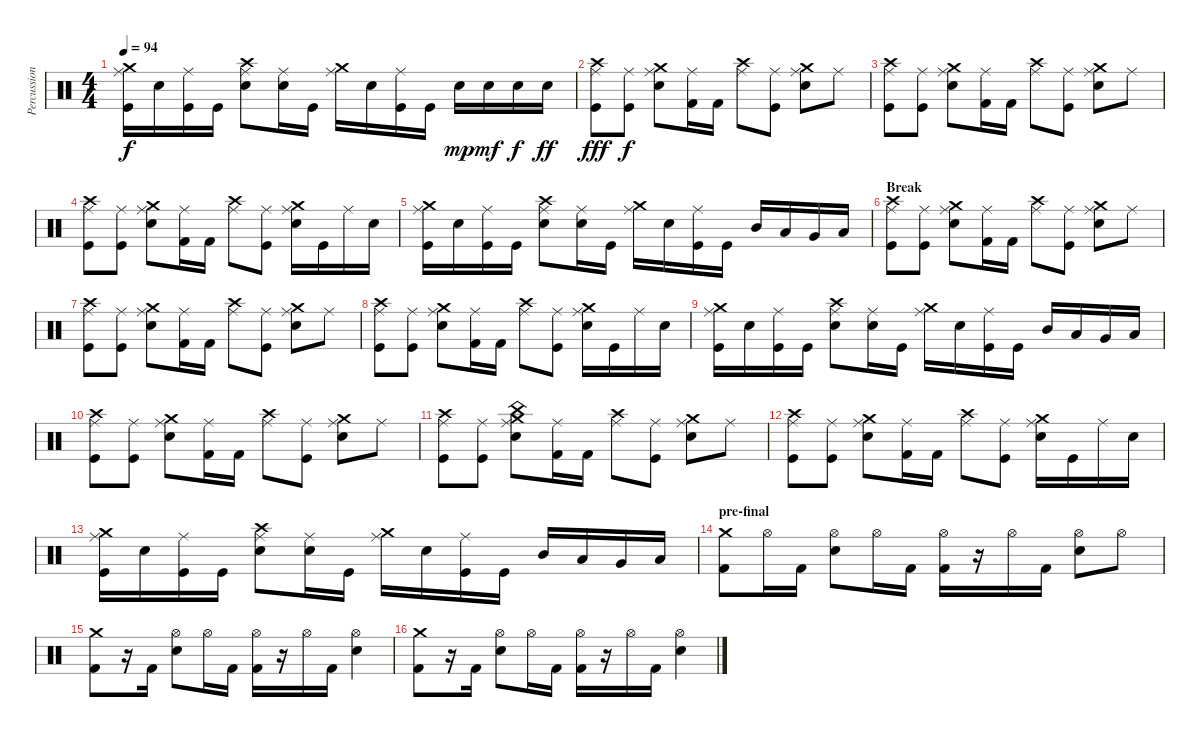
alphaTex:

\track ("Percussions" "Percussion") {instrument percussion}
\staff {score}
\articulation defaults
\ts (4 4)
\tempo 94
\clef neutral
\ks c
("Crash medium (hit)" "Ride (middle)" "Kick (hit)").16{dy f} "Electric Snare (hit)".16 ("Ride (middle)" "Kick (hit)").16 "Kick (hit)".16 ("Crash high (hit)" "Ride (middle)" "Electric Snare (hit)").8 ("Ride (middle)" "Electric Snare (hit)").16 "Kick (hit)".16 ("Crash medium (hit)" "Ride (middle)").16 "Electric Snare (hit)".16 ("Ride (middle)" "Kick (hit)").16 "Kick (hit)".16 "Electric Snare (hit)".16{dy mp} "Electric Snare (hit)".16{dy mf} "Electric Snare (hit)".16{dy f} "Electric Snare (hit)".16{dy ff} |
("Crash high (hit)" "Ride (middle)" "Kick (hit)").8{dy fff volume 16} ("Ride (middle)" "Kick (hit)").8{dy f} ("Crash medium (hit)" "Ride (middle)" "Electric Snare (hit)").8 ("Ride (middle)" "Kick (hit) 2").16 "Kick (hit) 2".16 ("Crash high (hit)" "Ride (middle)").8 ("Ride (middle)" "Kick (hit)").8 ("Crash medium (hit)" "Ride (middle)" "Electric Snare (hit)").8 "Ride (middle)".8 |
("Crash high (hit)" "Ride (middle)" "Kick (hit)").8 ("Ride (middle)" "Kick (hit)").8 ("Crash medium (hit)" "Ride (middle)" "Electric Snare (hit)").8 ("Ride (middle)" "Kick (hit) 2").16 "Kick (hit) 2".16 ("Crash high (hit)" "Ride (middle)").8 ("Ride (middle)" "Kick (hit)").8 ("Crash medium (hit)" "Ride (middle)" "Electric Snare (hit)").8 "Ride (middle)".8 |
("Crash high (hit)" "Ride (middle)" "Kick (hit)").8 ("Ride (middle)" "Kick (hit)").8 ("Crash medium (hit)" "Ride (middle)" "Electric Snare (hit)").8 ("Ride (middle)" "Kick (hit) 2").16 "Kick (hit) 2".16 ("Crash high (hit)" "Ride (middle)").8 ("Ride (middle)" "Kick (hit)").8 ("Crash medium (hit)" "Ride (middle)" "Electric Snare (hit)").16 "Kick (hit)".16 "Ride (middle)".16 "Electric Snare (hit)".16 |
("Crash medium (hit)" "Ride (middle)" "Kick (hit)").16 "Electric Snare (hit)".16 ("Ride (middle)" "Kick (hit)").16 "Kick (hit)".16 ("Crash high (hit)" "Ride (middle)" "Electric Snare (hit)").8 ("Ride (middle)" "Electric Snare (hit)").16 "Kick (hit)".16 ("Crash medium (hit)" "Ride (middle)").16 "Electric Snare (hit)".16 ("Ride (middle)" "Kick (hit)").16 "Kick (hit)".16 "Mid Tom (hit)".16 "Low Tom (hit)".16 "Very Low Tom (hit)".16 "Low Floor Tom (hit)".16 |
\section ("" "Break")
("Crash high (hit)" "Ride (middle)" "Kick (hit)").8{volume 16} ("Ride (middle)" "Kick (hit)").8 ("Crash medium (hit)" "Ride (middle)" "Electric Snare (hit)").8 ("Ride (middle)" "Kick (hit) 2").16 "Kick (hit) 2".16 ("Crash high (hit)" "Ride (middle)").8 ("Ride (middle)" "Kick (hit)").8 ("Crash medium (hit)" "Ride (middle)" "Electric Snare (hit)").8 "Ride (middle)".8 |
("Crash high (hit)" "Ride (middle)" "Kick (hit)").8 ("Ride (middle)" "Kick (hit)").8 ("Crash medium (hit)" "Ride (middle)" "Electric Snare (hit)").8 ("Ride (middle)" "Kick (hit) 2").16 "Kick (hit) 2".16 ("Crash high (hit)" "Ride (middle)").8 ("Ride (middle)" "Kick (hit)").8 ("Crash medium (hit)" "Ride (middle)" "Electric Snare (hit)").8 "Ride (middle)".8 |
("Crash high (hit)" "Ride (middle)" "Kick (hit)").8 ("Ride (middle)" "Kick (hit)").8 ("Crash medium (hit)" "Ride (middle)" "Electric Snare (hit)").8 ("Ride (middle)" "Kick (hit) 2").16 "Kick (hit) 2".16 ("Crash high (hit)" "Ride (middle)").8 ("Ride (middle)" "Kick (hit)").8 ("Crash medium (hit)" "Ride (middle)" "Electric Snare (hit)").16 "Kick (hit)".16 "Ride (middle)".16 "Electric Snare (hit)".16 |
("Crash medium (hit)" "Ride (middle)" "Kick (hit)").16 "Electric Snare (hit)".16 ("Ride (middle)" "Kick (hit)").16 "Kick (hit)".16 ("Crash high (hit)" "Ride (middle)" "Electric Snare (hit)").8 ("Ride (middle)" "Electric Snare (hit)").16 "Kick (hit)".16 ("Crash medium (hit)" "Ride (middle)").16 "Electric Snare (hit)".16 ("Ride (middle)" "Kick (hit)").16 "Kick (hit)".16 "Mid Tom (hit)".16 "Low Tom (hit)".16 "Very Low Tom (hit)".16 "Low Floor Tom (hit)".16 |
("Crash high (hit)" "Ride (middle)" "Kick (hit)").8{volume 16} ("Ride (middle)" "Kick (hit)").8 ("Crash medium (hit)" "Ride (middle)" "Electric Snare (hit)").8 ("Ride (middle)" "Kick (hit) 2").16 "Kick (hit) 2".16 ("Crash high (hit)" "Ride (middle)").8 ("Ride (middle)" "Kick (hit)").8 ("Crash medium (hit)" "Ride (middle)" "Electric Snare (hit)").8 "Ride (middle)".8 |
("Crash high (hit)" "Ride (middle)" "Kick (hit)").8 ("Ride (middle)" "Kick (hit)").8 ("Crash medium (hit)" "Ride (middle)" "China (hit)" "Electric Snare (hit)").8 ("Ride (middle)" "Kick (hit) 2").16 "Kick (hit) 2".16 ("Crash high (hit)" "Ride (middle)").8 ("Ride (middle)" "Kick (hit)").8 ("Crash medium (hit)" "Ride (middle)" "Electric Snare (hit)").8 "Ride (middle)".8 |
("Crash high (hit)" "Ride (middle)" "Kick (hit)").8 ("Ride (middle)" "Kick (hit)").8 ("Crash medium (hit)" "Ride (middle)" "Electric Snare (hit)").8 ("Ride (middle)" "Kick (hit) 2").16 "Kick (hit) 2".16 ("Crash high (hit)" "Ride (middle)").8 ("Ride (middle)" "Kick (hit)").8 ("Crash medium (hit)" "Ride (middle)" "Electric Snare (hit)").16 "Kick (hit)".16 "Ride (middle)".16 "Electric Snare (hit)".16 |
("Crash medium (hit)" "Ride (middle)" "Kick (hit)").16 "Electric Snare (hit)".16 ("Ride (middle)" "Kick (hit)").16 "Kick (hit)".16 ("Crash high (hit)" "Ride (middle)" "Electric Snare (hit)").8 ("Ride (middle)" "Electric Snare (hit)").16 "Kick (hit)".16 ("Crash medium (hit)" "Ride (middle)").16 "Electric Snare (hit)".16 ("Ride (middle)" "Kick (hit)").16 "Kick (hit)".16 "Mid Tom (hit)".16 "Low Tom (hit)".16 "Very Low Tom (hit)".16 "Low Floor Tom (hit)".16 |
\section ("" "pre-final")
("Crash medium (hit)" "Kick (hit) 2").8 "Hi-Hat (open)".16 "Kick (hit) 2".16 ("Hi-Hat (open)" "Electric Snare (hit)").8 "Hi-Hat (open)".16 "Kick (hit) 2".16 ("Hi-Hat (open)" "Kick (hit) 2").16 r.16 "Hi-Hat (open)".16 "Kick (hit) 2".16 ("Hi-Hat (open)" "Electric Snare (hit)").8 "Hi-Hat (open)".8 |
("Crash medium (hit)" "Kick (hit) 2").8 r.16 "Kick (hit) 2".16 ("Hi-Hat (open)" "Electric Snare (hit)").8 "Hi-Hat (open)".16 "Kick (hit) 2".16 ("Hi-Hat (open)" "Kick (hit) 2").16 r.16 "Hi-Hat (open)".16 "Kick (hit) 2".16 ("Hi-Hat (open)" "Electric Snare (hit)").4 |
("Crash medium (hit)" "Kick (hit) 2").8 r.16 "Kick (hit) 2".16 ("Hi-Hat (open)" "Electric Snare (hit)").8 "Hi-Hat (open)".16 "Kick (hit) 2".16 ("Hi-Hat (open)" "Kick (hit) 2").16 r.16 "Hi-Hat (open)".16 "Kick (hit) 2".16 ("Hi-Hat (open)" "Electric Snare (hit)").4
